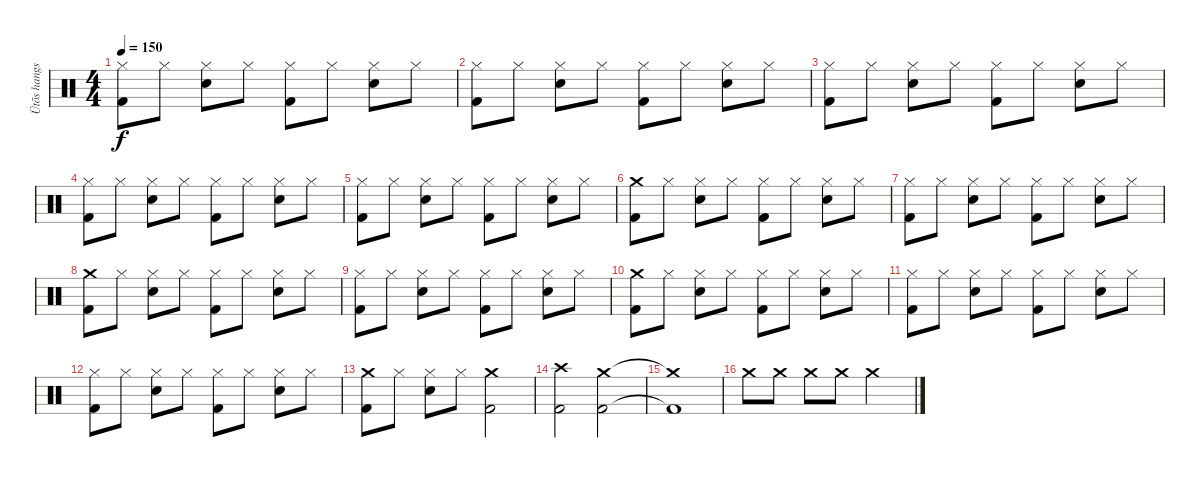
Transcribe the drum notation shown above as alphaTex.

\track ("Ütõs hangszer" "Ütõs hangs") {instrument percussion}
\staff {score}
\articulation defaults
\ts (4 4)
\tempo 150
\clef neutral
\ks c
("Hi-Hat (closed)" "Kick (hit) 2").8{dy f} "Hi-Hat (closed)".8 ("Hi-Hat (closed)" "Electric Snare (hit)").8 "Hi-Hat (closed)".8 ("Hi-Hat (closed)" "Kick (hit) 2").8 "Hi-Hat (closed)".8 ("Hi-Hat (closed)" "Electric Snare (hit)").8 "Hi-Hat (closed)".8 |
("Hi-Hat (closed)" "Kick (hit) 2").8 "Hi-Hat (closed)".8 ("Hi-Hat (closed)" "Electric Snare (hit)").8 "Hi-Hat (closed)".8 ("Hi-Hat (closed)" "Kick (hit) 2").8 "Hi-Hat (closed)".8 ("Hi-Hat (closed)" "Electric Snare (hit)").8 "Hi-Hat (closed)".8 |
("Hi-Hat (closed)" "Kick (hit) 2").8 "Hi-Hat (closed)".8 ("Hi-Hat (closed)" "Electric Snare (hit)").8 "Hi-Hat (closed)".8 ("Hi-Hat (closed)" "Kick (hit) 2").8 "Hi-Hat (closed)".8 ("Hi-Hat (closed)" "Electric Snare (hit)").8 "Hi-Hat (closed)".8 |
("Hi-Hat (closed)" "Kick (hit) 2").8 "Hi-Hat (closed)".8 ("Hi-Hat (closed)" "Electric Snare (hit)").8 "Hi-Hat (closed)".8 ("Hi-Hat (closed)" "Kick (hit) 2").8 "Hi-Hat (closed)".8 ("Hi-Hat (closed)" "Electric Snare (hit)").8 "Hi-Hat (closed)".8 |
("Hi-Hat (closed)" "Kick (hit) 2").8 "Hi-Hat (closed)".8 ("Hi-Hat (closed)" "Electric Snare (hit)").8 "Hi-Hat (closed)".8 ("Hi-Hat (closed)" "Kick (hit) 2").8 "Hi-Hat (closed)".8 ("Hi-Hat (closed)" "Electric Snare (hit)").8 "Hi-Hat (closed)".8 |
("Crash medium (hit)" "Kick (hit) 2").8 "Hi-Hat (closed)".8 ("Hi-Hat (closed)" "Electric Snare (hit)").8 "Hi-Hat (closed)".8 ("Hi-Hat (closed)" "Kick (hit) 2").8 "Hi-Hat (closed)".8 ("Hi-Hat (closed)" "Electric Snare (hit)").8 "Hi-Hat (closed)".8 |
("Hi-Hat (closed)" "Kick (hit) 2").8 "Hi-Hat (closed)".8 ("Hi-Hat (closed)" "Electric Snare (hit)").8 "Hi-Hat (closed)".8 ("Hi-Hat (closed)" "Kick (hit) 2").8 "Hi-Hat (closed)".8 ("Hi-Hat (closed)" "Electric Snare (hit)").8 "Hi-Hat (closed)".8 |
("Crash medium (hit)" "Kick (hit) 2").8 "Hi-Hat (closed)".8 ("Hi-Hat (closed)" "Electric Snare (hit)").8 "Hi-Hat (closed)".8 ("Hi-Hat (closed)" "Kick (hit) 2").8 "Hi-Hat (closed)".8 ("Hi-Hat (closed)" "Electric Snare (hit)").8 "Hi-Hat (closed)".8 |
("Hi-Hat (closed)" "Kick (hit) 2").8 "Hi-Hat (closed)".8 ("Hi-Hat (closed)" "Electric Snare (hit)").8 "Hi-Hat (closed)".8 ("Hi-Hat (closed)" "Kick (hit) 2").8 "Hi-Hat (closed)".8 ("Hi-Hat (closed)" "Electric Snare (hit)").8 "Hi-Hat (closed)".8 |
("Crash medium (hit)" "Kick (hit) 2").8 "Hi-Hat (closed)".8 ("Hi-Hat (closed)" "Electric Snare (hit)").8 "Hi-Hat (closed)".8 ("Hi-Hat (closed)" "Kick (hit) 2").8 "Hi-Hat (closed)".8 ("Hi-Hat (closed)" "Electric Snare (hit)").8 "Hi-Hat (closed)".8 |
("Hi-Hat (closed)" "Kick (hit) 2").8 "Hi-Hat (closed)".8 ("Hi-Hat (closed)" "Electric Snare (hit)").8 "Hi-Hat (closed)".8 ("Hi-Hat (closed)" "Kick (hit) 2").8 "Hi-Hat (closed)".8 ("Hi-Hat (closed)" "Electric Snare (hit)").8 "Hi-Hat (closed)".8 |
("Hi-Hat (closed)" "Kick (hit) 2").8 "Hi-Hat (closed)".8 ("Hi-Hat (closed)" "Electric Snare (hit)").8 "Hi-Hat (closed)".8 ("Hi-Hat (closed)" "Kick (hit) 2").8 "Hi-Hat (closed)".8 ("Hi-Hat (closed)" "Electric Snare (hit)").8 "Hi-Hat (closed)".8 |
("Crash medium (hit)" "Kick (hit) 2").8 "Hi-Hat (closed)".8 ("Hi-Hat (closed)" "Electric Snare (hit)").8 "Hi-Hat (closed)".8 ("Crash medium (hit)" "Kick (hit) 2").2 |
("Crash high (hit)" "Kick (hit) 2").2 ("Crash medium (hit)" "Kick (hit) 2").2 |
("Crash medium (hit)"{t} "Kick (hit) 2"{t}).1 |
"Crash medium (hit)".8 "Crash medium (hit)".8 "Crash medium (hit)".8 "Crash medium (hit)".8 "Crash medium (hit)".2
